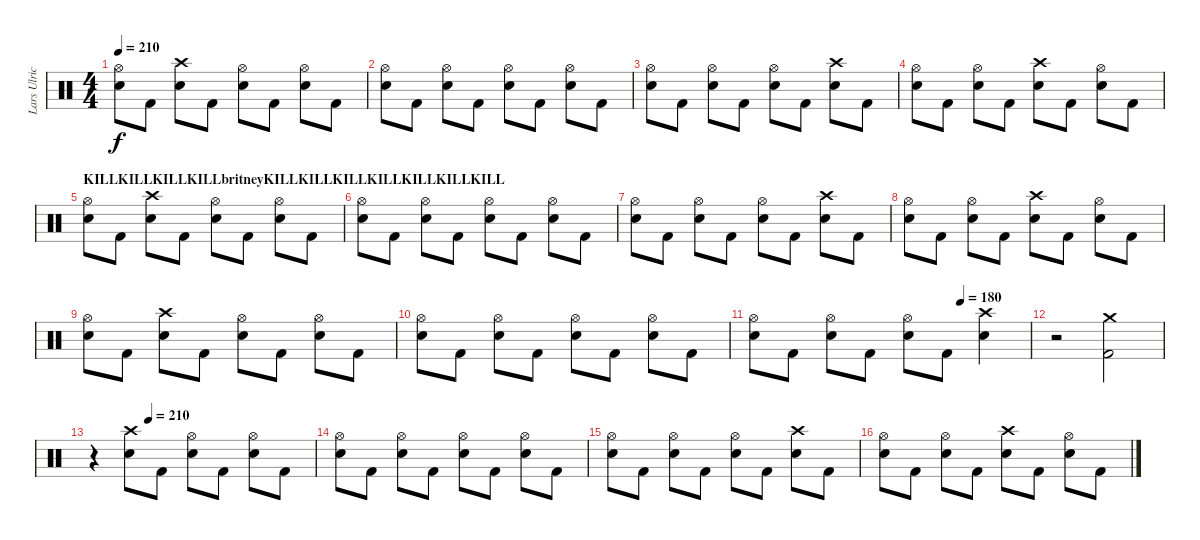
\track ("Lars Ulrich" "Lars Ulric") {instrument percussion}
\staff {score}
\articulation defaults
\ts (4 4)
\tempo 210
\clef neutral
\ks c
("Snare (hit) 2" "Hi-Hat (open)").8{dy f} "Kick (hit) 2".8 ("Snare (hit) 2" "Crash high (hit)").8 "Kick (hit) 2".8 ("Snare (hit) 2" "Hi-Hat (open)").8 "Kick (hit) 2".8 ("Snare (hit) 2" "Hi-Hat (open)").8 "Kick (hit) 2".8 |
("Snare (hit) 2" "Hi-Hat (open)").8 "Kick (hit) 2".8 ("Snare (hit) 2" "Hi-Hat (open)").8 "Kick (hit) 2".8 ("Snare (hit) 2" "Hi-Hat (open)").8 "Kick (hit) 2".8 ("Snare (hit) 2" "Hi-Hat (open)").8 "Kick (hit) 2".8 |
("Snare (hit) 2" "Hi-Hat (open)").8 "Kick (hit) 2".8 ("Snare (hit) 2" "Hi-Hat (open)").8 "Kick (hit) 2".8 ("Snare (hit) 2" "Hi-Hat (open)").8 "Kick (hit) 2".8 ("Snare (hit) 2" "Crash high (hit)").8 "Kick (hit) 2".8 |
("Snare (hit) 2" "Hi-Hat (open)").8 "Kick (hit) 2".8 ("Snare (hit) 2" "Hi-Hat (open)").8 "Kick (hit) 2".8 ("Snare (hit) 2" "Crash high (hit)").8 "Kick (hit) 2".8 ("Snare (hit) 2" "Hi-Hat (open)").8 "Kick (hit) 2".8 |
\section ("" "KILLKILLKILLKILLbritneyKILLKILLKILLKILLKILLKILLKILL")
("Snare (hit) 2" "Hi-Hat (open)").8 "Kick (hit) 2".8 ("Snare (hit) 2" "Crash high (hit)").8 "Kick (hit) 2".8 ("Snare (hit) 2" "Hi-Hat (open)").8 "Kick (hit) 2".8 ("Snare (hit) 2" "Hi-Hat (open)").8 "Kick (hit) 2".8 |
("Snare (hit) 2" "Hi-Hat (open)").8 "Kick (hit) 2".8 ("Snare (hit) 2" "Hi-Hat (open)").8 "Kick (hit) 2".8 ("Snare (hit) 2" "Hi-Hat (open)").8 "Kick (hit) 2".8 ("Snare (hit) 2" "Hi-Hat (open)").8 "Kick (hit) 2".8 |
("Snare (hit) 2" "Hi-Hat (open)").8 "Kick (hit) 2".8 ("Snare (hit) 2" "Hi-Hat (open)").8 "Kick (hit) 2".8 ("Snare (hit) 2" "Hi-Hat (open)").8 "Kick (hit) 2".8 ("Snare (hit) 2" "Crash high (hit)").8 "Kick (hit) 2".8 |
("Snare (hit) 2" "Hi-Hat (open)").8 "Kick (hit) 2".8 ("Snare (hit) 2" "Hi-Hat (open)").8 "Kick (hit) 2".8 ("Snare (hit) 2" "Crash high (hit)").8 "Kick (hit) 2".8 ("Snare (hit) 2" "Hi-Hat (open)").8 "Kick (hit) 2".8 |
("Snare (hit) 2" "Hi-Hat (open)").8 "Kick (hit) 2".8 ("Snare (hit) 2" "Crash high (hit)").8 "Kick (hit) 2".8 ("Snare (hit) 2" "Hi-Hat (open)").8 "Kick (hit) 2".8 ("Snare (hit) 2" "Hi-Hat (open)").8 "Kick (hit) 2".8 |
("Snare (hit) 2" "Hi-Hat (open)").8 "Kick (hit) 2".8 ("Snare (hit) 2" "Hi-Hat (open)").8 "Kick (hit) 2".8 ("Snare (hit) 2" "Hi-Hat (open)").8 "Kick (hit) 2".8 ("Snare (hit) 2" "Hi-Hat (open)").8 "Kick (hit) 2".8 |
\tempo (180 0.75)
("Snare (hit) 2" "Hi-Hat (open)").8 "Kick (hit) 2".8 ("Snare (hit) 2" "Hi-Hat (open)").8 "Kick (hit) 2".8 ("Snare (hit) 2" "Hi-Hat (open)").8 "Kick (hit) 2".8 ("Snare (hit) 2" "Crash high (hit)").4 |
r.2 ("Crash medium (hit)" "Kick (hit) 2").2 |
\tempo (210 0.25)
r.4 ("Snare (hit) 2" "Crash high (hit)").8 "Kick (hit) 2".8 ("Snare (hit) 2" "Hi-Hat (open)").8 "Kick (hit) 2".8 ("Snare (hit) 2" "Hi-Hat (open)").8 "Kick (hit) 2".8 |
("Snare (hit) 2" "Hi-Hat (open)").8 "Kick (hit) 2".8 ("Snare (hit) 2" "Hi-Hat (open)").8 "Kick (hit) 2".8 ("Snare (hit) 2" "Hi-Hat (open)").8 "Kick (hit) 2".8 ("Snare (hit) 2" "Hi-Hat (open)").8 "Kick (hit) 2".8 |
("Snare (hit) 2" "Hi-Hat (open)").8 "Kick (hit) 2".8 ("Snare (hit) 2" "Hi-Hat (open)").8 "Kick (hit) 2".8 ("Snare (hit) 2" "Hi-Hat (open)").8 "Kick (hit) 2".8 ("Snare (hit) 2" "Crash high (hit)").8 "Kick (hit) 2".8 |
("Snare (hit) 2" "Hi-Hat (open)").8 "Kick (hit) 2".8 ("Snare (hit) 2" "Hi-Hat (open)").8 "Kick (hit) 2".8 ("Snare (hit) 2" "Crash high (hit)").8 "Kick (hit) 2".8 ("Snare (hit) 2" "Hi-Hat (open)").8 "Kick (hit) 2".8
